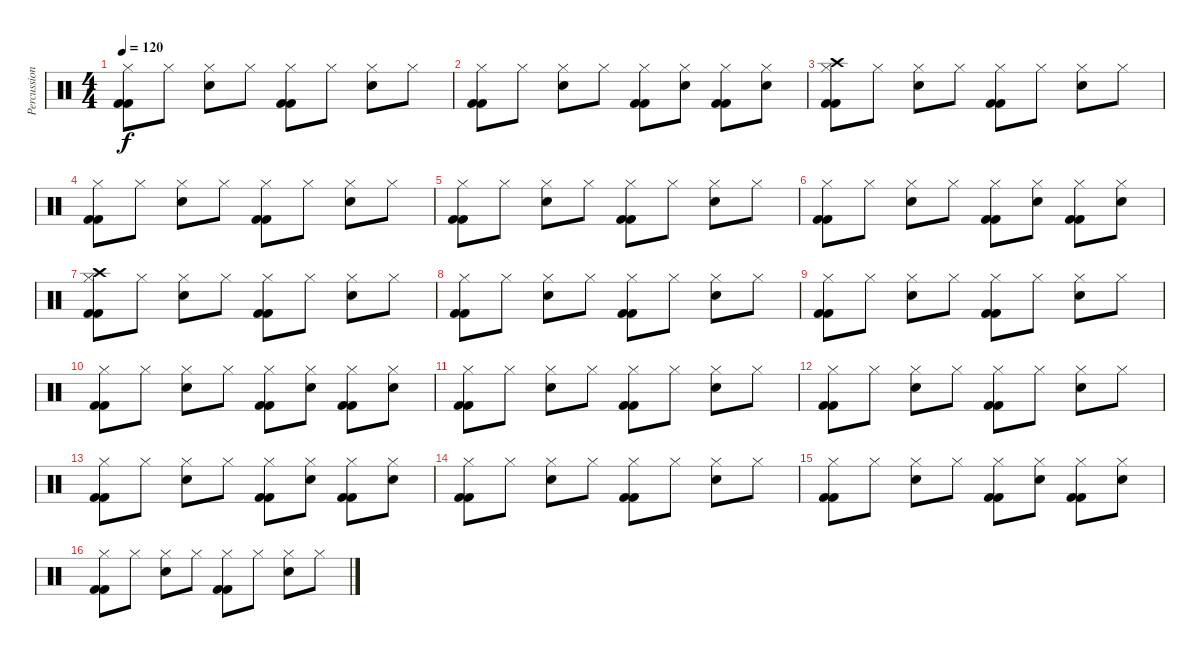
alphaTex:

\track ("Percussion" "Percussion") {instrument percussion}
\staff {score}
\articulation defaults
\ts (4 4)
\tempo 120
\clef neutral
\ks c
("Hi-Hat (closed)" "Kick (hit) 2" "Kick (hit) 2").8{dy f} "Hi-Hat (closed)".8 ("Hi-Hat (closed)" "Electric Snare (hit)").8 "Hi-Hat (closed)".8 ("Hi-Hat (closed)" "Kick (hit) 2" "Kick (hit) 2").8 "Hi-Hat (closed)".8 ("Hi-Hat (closed)" "Electric Snare (hit)").8 "Hi-Hat (closed)".8 |
("Hi-Hat (closed)" "Kick (hit) 2" "Kick (hit) 2").8 "Hi-Hat (closed)".8 ("Hi-Hat (closed)" "Electric Snare (hit)").8 "Hi-Hat (closed)".8 ("Hi-Hat (closed)" "Kick (hit) 2" "Kick (hit) 2").8 ("Hi-Hat (closed)" "Electric Snare (hit)").8 ("Hi-Hat (closed)" "Kick (hit) 2" "Kick (hit) 2").8 ("Hi-Hat (closed)" "Electric Snare (hit)").8 |
("Hi-Hat (closed)" "Crash high (hit)" "Kick (hit) 2" "Kick (hit) 2").8 "Hi-Hat (closed)".8 ("Hi-Hat (closed)" "Electric Snare (hit)").8 "Hi-Hat (closed)".8 ("Hi-Hat (closed)" "Kick (hit) 2" "Kick (hit) 2").8 "Hi-Hat (closed)".8 ("Hi-Hat (closed)" "Electric Snare (hit)").8 "Hi-Hat (closed)".8 |
("Hi-Hat (closed)" "Kick (hit) 2" "Kick (hit) 2").8 "Hi-Hat (closed)".8 ("Hi-Hat (closed)" "Electric Snare (hit)").8 "Hi-Hat (closed)".8 ("Hi-Hat (closed)" "Kick (hit) 2" "Kick (hit) 2").8 "Hi-Hat (closed)".8 ("Hi-Hat (closed)" "Electric Snare (hit)").8 "Hi-Hat (closed)".8 |
("Hi-Hat (closed)" "Kick (hit) 2" "Kick (hit) 2").8 "Hi-Hat (closed)".8 ("Hi-Hat (closed)" "Electric Snare (hit)").8 "Hi-Hat (closed)".8 ("Hi-Hat (closed)" "Kick (hit) 2" "Kick (hit) 2").8 "Hi-Hat (closed)".8 ("Hi-Hat (closed)" "Electric Snare (hit)").8 "Hi-Hat (closed)".8 |
("Hi-Hat (closed)" "Kick (hit) 2" "Kick (hit) 2").8 "Hi-Hat (closed)".8 ("Hi-Hat (closed)" "Electric Snare (hit)").8 "Hi-Hat (closed)".8 ("Hi-Hat (closed)" "Kick (hit) 2" "Kick (hit) 2").8 ("Hi-Hat (closed)" "Electric Snare (hit)").8 ("Hi-Hat (closed)" "Kick (hit) 2" "Kick (hit) 2").8 ("Hi-Hat (closed)" "Electric Snare (hit)").8 |
("Hi-Hat (closed)" "Crash high (hit)" "Kick (hit) 2" "Kick (hit) 2").8 "Hi-Hat (closed)".8 ("Hi-Hat (closed)" "Electric Snare (hit)").8 "Hi-Hat (closed)".8 ("Hi-Hat (closed)" "Kick (hit) 2" "Kick (hit) 2").8 "Hi-Hat (closed)".8 ("Hi-Hat (closed)" "Electric Snare (hit)").8 "Hi-Hat (closed)".8 |
("Hi-Hat (closed)" "Kick (hit) 2" "Kick (hit) 2").8 "Hi-Hat (closed)".8 ("Hi-Hat (closed)" "Electric Snare (hit)").8 "Hi-Hat (closed)".8 ("Hi-Hat (closed)" "Kick (hit) 2" "Kick (hit) 2").8 "Hi-Hat (closed)".8 ("Hi-Hat (closed)" "Electric Snare (hit)").8 "Hi-Hat (closed)".8 |
("Hi-Hat (closed)" "Kick (hit) 2" "Kick (hit) 2").8 "Hi-Hat (closed)".8 ("Hi-Hat (closed)" "Electric Snare (hit)").8 "Hi-Hat (closed)".8 ("Hi-Hat (closed)" "Kick (hit) 2" "Kick (hit) 2").8 "Hi-Hat (closed)".8 ("Hi-Hat (closed)" "Electric Snare (hit)").8 "Hi-Hat (closed)".8 |
("Hi-Hat (closed)" "Kick (hit) 2" "Kick (hit) 2").8 "Hi-Hat (closed)".8 ("Hi-Hat (closed)" "Electric Snare (hit)").8 "Hi-Hat (closed)".8 ("Hi-Hat (closed)" "Kick (hit) 2" "Kick (hit) 2").8 ("Hi-Hat (closed)" "Electric Snare (hit)").8 ("Hi-Hat (closed)" "Kick (hit) 2" "Kick (hit) 2").8 ("Hi-Hat (closed)" "Electric Snare (hit)").8 |
("Hi-Hat (closed)" "Kick (hit) 2" "Kick (hit) 2").8 "Hi-Hat (closed)".8 ("Hi-Hat (closed)" "Electric Snare (hit)").8 "Hi-Hat (closed)".8 ("Hi-Hat (closed)" "Kick (hit) 2" "Kick (hit) 2").8 "Hi-Hat (closed)".8 ("Hi-Hat (closed)" "Electric Snare (hit)").8 "Hi-Hat (closed)".8 |
("Hi-Hat (closed)" "Kick (hit) 2" "Kick (hit) 2").8 "Hi-Hat (closed)".8 ("Hi-Hat (closed)" "Electric Snare (hit)").8 "Hi-Hat (closed)".8 ("Hi-Hat (closed)" "Kick (hit) 2" "Kick (hit) 2").8 "Hi-Hat (closed)".8 ("Hi-Hat (closed)" "Electric Snare (hit)").8 "Hi-Hat (closed)".8 |
("Hi-Hat (closed)" "Kick (hit) 2" "Kick (hit) 2").8 "Hi-Hat (closed)".8 ("Hi-Hat (closed)" "Electric Snare (hit)").8 "Hi-Hat (closed)".8 ("Hi-Hat (closed)" "Kick (hit) 2" "Kick (hit) 2").8 ("Hi-Hat (closed)" "Electric Snare (hit)").8 ("Hi-Hat (closed)" "Kick (hit) 2" "Kick (hit) 2").8 ("Hi-Hat (closed)" "Electric Snare (hit)").8 |
("Hi-Hat (closed)" "Kick (hit) 2" "Kick (hit) 2").8 "Hi-Hat (closed)".8 ("Hi-Hat (closed)" "Electric Snare (hit)").8 "Hi-Hat (closed)".8 ("Hi-Hat (closed)" "Kick (hit) 2" "Kick (hit) 2").8 "Hi-Hat (closed)".8 ("Hi-Hat (closed)" "Electric Snare (hit)").8 "Hi-Hat (closed)".8 |
("Hi-Hat (closed)" "Kick (hit) 2" "Kick (hit) 2").8 "Hi-Hat (closed)".8 ("Hi-Hat (closed)" "Electric Snare (hit)").8 "Hi-Hat (closed)".8 ("Hi-Hat (closed)" "Kick (hit) 2" "Kick (hit) 2").8 ("Hi-Hat (closed)" "Electric Snare (hit)").8 ("Hi-Hat (closed)" "Kick (hit) 2" "Kick (hit) 2").8 ("Hi-Hat (closed)" "Electric Snare (hit)").8 |
("Hi-Hat (closed)" "Kick (hit) 2" "Kick (hit) 2").8 "Hi-Hat (closed)".8 ("Hi-Hat (closed)" "Electric Snare (hit)").8 "Hi-Hat (closed)".8 ("Hi-Hat (closed)" "Kick (hit) 2" "Kick (hit) 2").8 "Hi-Hat (closed)".8 ("Hi-Hat (closed)" "Electric Snare (hit)").8 "Hi-Hat (closed)".8
